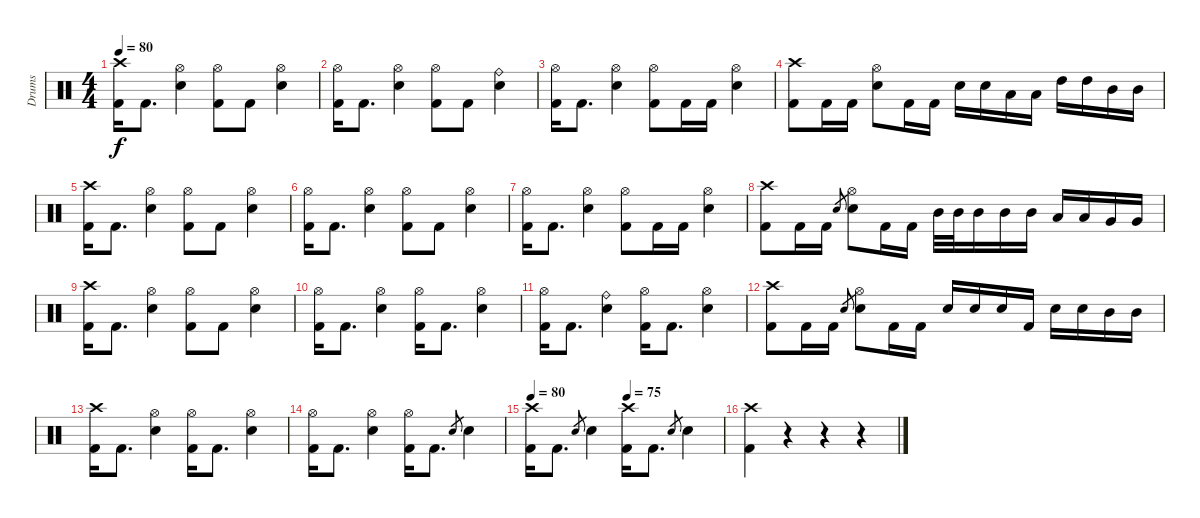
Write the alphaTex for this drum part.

\track ("Drums" "Drums") {instrument percussion}
\staff {score}
\articulation defaults
\ts (4 4)
\tempo 80
\clef neutral
\ks c
("Crash high (hit)" "Kick (hit) 2").16{dy f} "Kick (hit) 2".8{d} ("Hi-Hat (open)" "Electric Snare (hit)").4 ("Hi-Hat (open)" "Kick (hit) 2").8 "Kick (hit) 2".8 ("Hi-Hat (open)" "Electric Snare (hit)").4 |
("Hi-Hat (open)" "Kick (hit) 2").16 "Kick (hit) 2".8{d} ("Hi-Hat (open)" "Electric Snare (hit)").4 ("Hi-Hat (open)" "Kick (hit) 2").8 "Kick (hit) 2".8 ("Ride (bell)" "Electric Snare (hit)").4 |
("Hi-Hat (open)" "Kick (hit) 2").16 "Kick (hit) 2".8{d} ("Hi-Hat (open)" "Electric Snare (hit)").4 ("Hi-Hat (open)" "Kick (hit) 2").8 "Kick (hit) 2".16 "Kick (hit) 2".16 ("Hi-Hat (open)" "Electric Snare (hit)").4 |
("Crash high (hit)" "Kick (hit) 2").8 "Kick (hit) 2".16 "Kick (hit) 2".16 ("Hi-Hat (open)" "Electric Snare (hit)").8 "Kick (hit) 2".16 "Kick (hit) 2".16 "Electric Snare (hit)".16 "Electric Snare (hit)".16 "Low Tom (hit)".16 "Low Tom (hit)".16 "High Tom (hit)".16 "High Tom (hit)".16 "Mid Tom (hit)".16 "Mid Tom (hit)".16 |
("Crash high (hit)" "Kick (hit) 2").16 "Kick (hit) 2".8{d} ("Hi-Hat (open)" "Electric Snare (hit)").4 ("Hi-Hat (open)" "Kick (hit) 2").8 "Kick (hit) 2".8 ("Hi-Hat (open)" "Electric Snare (hit)").4 |
("Hi-Hat (open)" "Kick (hit) 2").16 "Kick (hit) 2".8{d} ("Hi-Hat (open)" "Electric Snare (hit)").4 ("Hi-Hat (open)" "Kick (hit) 2").8 "Kick (hit) 2".8 ("Hi-Hat (open)" "Electric Snare (hit)").4 |
("Hi-Hat (open)" "Kick (hit) 2").16 "Kick (hit) 2".8{d} ("Hi-Hat (open)" "Electric Snare (hit)").4 ("Hi-Hat (open)" "Kick (hit) 2").8 "Kick (hit) 2".16 "Kick (hit) 2".16 ("Hi-Hat (open)" "Electric Snare (hit)").4 |
("Crash high (hit)" "Kick (hit) 2").8 "Kick (hit) 2".16 "Kick (hit) 2".16 "Electric Snare (hit)".8{gr} ("Hi-Hat (open)" "Electric Snare (hit)").8 "Kick (hit) 2".16 "Kick (hit) 2".16 "Mid Tom (hit)".32 "Mid Tom (hit)".32 "Mid Tom (hit)".16 "Mid Tom (hit)".16 "Mid Tom (hit)".16 "Low Tom (hit)".16 "Low Tom (hit)".16 "Very Low Tom (hit)".16 "Very Low Tom (hit)".16 |
("Crash high (hit)" "Kick (hit) 2").16 "Kick (hit) 2".8{d} ("Hi-Hat (open)" "Electric Snare (hit)").4 ("Hi-Hat (open)" "Kick (hit) 2").8 "Kick (hit) 2".8 ("Hi-Hat (open)" "Electric Snare (hit)").4 |
("Hi-Hat (open)" "Kick (hit) 2").16 "Kick (hit) 2".8{d} ("Hi-Hat (open)" "Electric Snare (hit)").4 ("Hi-Hat (open)" "Kick (hit) 2").16 "Kick (hit) 2".8{d} ("Hi-Hat (open)" "Electric Snare (hit)").4 |
("Hi-Hat (open)" "Kick (hit) 2").16 "Kick (hit) 2".8{d} ("Ride (bell)" "Electric Snare (hit)").4 ("Hi-Hat (open)" "Kick (hit) 2").16 "Kick (hit) 2".8{d} ("Hi-Hat (open)" "Electric Snare (hit)").4 |
("Crash high (hit)" "Kick (hit) 2").8 "Kick (hit) 2".16 "Kick (hit) 2".16 "Electric Snare (hit)".8{gr} ("Hi-Hat (open)" "Electric Snare (hit)").8 "Kick (hit) 2".16 "Kick (hit) 2".16 "Electric Snare (hit)".16 "Electric Snare (hit)".16 "Electric Snare (hit)".16 "Kick (hit) 2".16 "Electric Snare (hit)".16 "Electric Snare (hit)".16 "Mid Tom (hit)".16 "Mid Tom (hit)".16 |
("Crash high (hit)" "Kick (hit) 2").16 "Kick (hit) 2".8{d} ("Hi-Hat (open)" "Electric Snare (hit)").4 ("Hi-Hat (open)" "Kick (hit) 2").16 "Kick (hit) 2".8{d} ("Hi-Hat (open)" "Electric Snare (hit)").4 |
("Hi-Hat (open)" "Kick (hit) 2").16 "Kick (hit) 2".8{d} ("Hi-Hat (open)" "Electric Snare (hit)").4 ("Hi-Hat (open)" "Kick (hit) 2").16 "Kick (hit) 2".8{d} "Electric Snare (hit)".8{gr} "Electric Snare (hit)".4 |
\tempo 80
\tempo (75 0.5)
("Crash high (hit)" "Kick (hit) 2").16 "Kick (hit) 2".8{d} "Electric Snare (hit)".8{gr} "Electric Snare (hit)".4 ("Crash high (hit)" "Kick (hit) 2").16 "Kick (hit) 2".8{d} "Electric Snare (hit)".8{gr} "Electric Snare (hit)".4 |
("Crash high (hit)" "Kick (hit) 2").4 r.4 r.4 r.4
